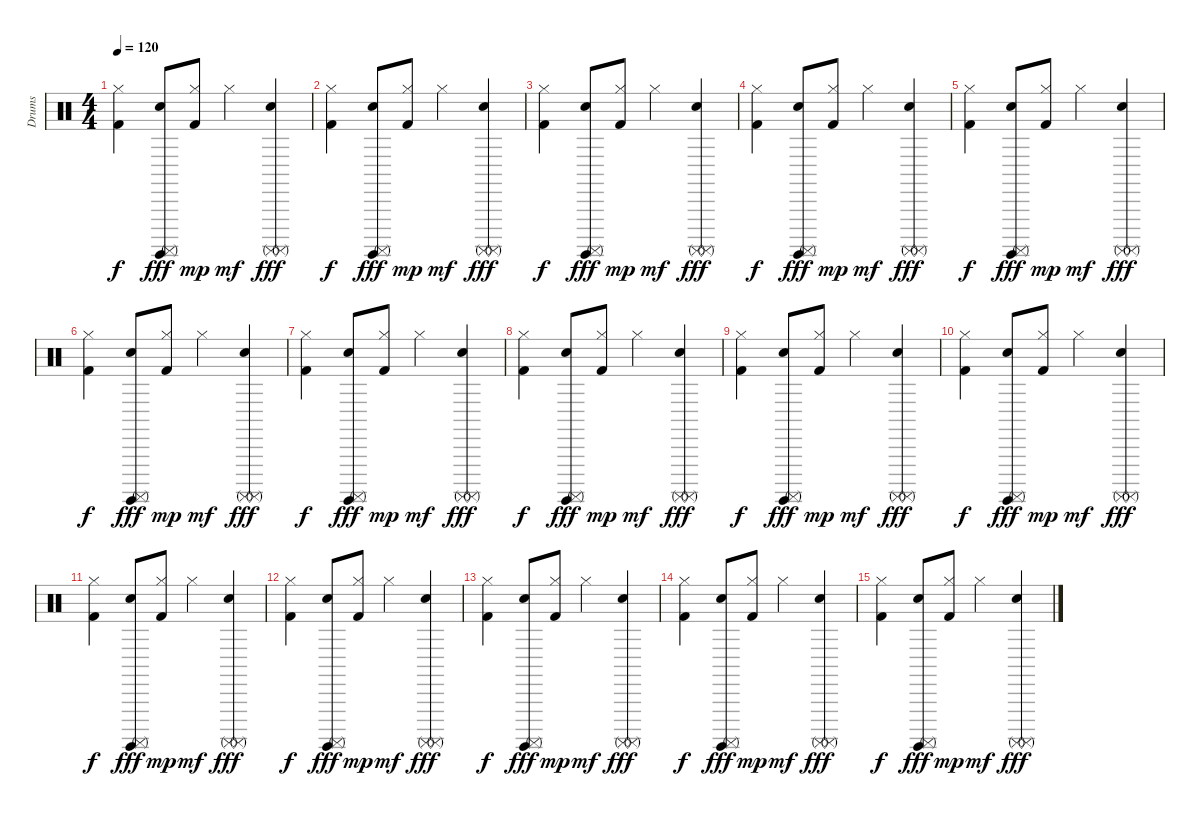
\track ("Drums" "Drums") {instrument percussion}
\staff {score}
\articulation defaults
\ts (4 4)
\tempo 120
\clef neutral
\ks c
("Kick (hit) 2" "Hi-Hat (closed)").4{dy f} ("Snare (hit) 2" "Surdo (mute)" "Surdo (hit)").8{dy fff} ("Kick (hit) 2" "Hi-Hat (closed)").8{dy mp} "Hi-Hat (closed)".4{dy mf volume 13} ("Snare (hit) 2" "Surdo (mute)" "Surdo (mute)").4{dy fff} |
("Kick (hit) 2" "Hi-Hat (closed)").4{dy f} ("Snare (hit) 2" "Surdo (mute)" "Surdo (hit)").8{dy fff} ("Kick (hit) 2" "Hi-Hat (closed)").8{dy mp} "Hi-Hat (closed)".4{dy mf volume 13} ("Snare (hit) 2" "Surdo (mute)" "Surdo (mute)").4{dy fff} |
("Kick (hit) 2" "Hi-Hat (closed)").4{dy f} ("Snare (hit) 2" "Surdo (mute)" "Surdo (hit)").8{dy fff} ("Kick (hit) 2" "Hi-Hat (closed)").8{dy mp} "Hi-Hat (closed)".4{dy mf volume 13} ("Snare (hit) 2" "Surdo (mute)" "Surdo (mute)").4{dy fff} |
("Kick (hit) 2" "Hi-Hat (closed)").4{dy f} ("Snare (hit) 2" "Surdo (mute)" "Surdo (hit)").8{dy fff} ("Kick (hit) 2" "Hi-Hat (closed)").8{dy mp} "Hi-Hat (closed)".4{dy mf volume 13} ("Snare (hit) 2" "Surdo (mute)" "Surdo (mute)").4{dy fff} |
("Kick (hit) 2" "Hi-Hat (closed)").4{dy f} ("Snare (hit) 2" "Surdo (mute)" "Surdo (hit)").8{dy fff} ("Kick (hit) 2" "Hi-Hat (closed)").8{dy mp} "Hi-Hat (closed)".4{dy mf volume 13} ("Snare (hit) 2" "Surdo (mute)" "Surdo (mute)").4{dy fff} |
("Kick (hit) 2" "Hi-Hat (closed)").4{dy f} ("Snare (hit) 2" "Surdo (mute)" "Surdo (hit)").8{dy fff} ("Kick (hit) 2" "Hi-Hat (closed)").8{dy mp} "Hi-Hat (closed)".4{dy mf volume 13} ("Snare (hit) 2" "Surdo (mute)" "Surdo (mute)").4{dy fff} |
("Kick (hit) 2" "Hi-Hat (closed)").4{dy f} ("Snare (hit) 2" "Surdo (mute)" "Surdo (hit)").8{dy fff} ("Kick (hit) 2" "Hi-Hat (closed)").8{dy mp} "Hi-Hat (closed)".4{dy mf volume 13} ("Snare (hit) 2" "Surdo (mute)" "Surdo (mute)").4{dy fff} |
("Kick (hit) 2" "Hi-Hat (closed)").4{dy f} ("Snare (hit) 2" "Surdo (mute)" "Surdo (hit)").8{dy fff} ("Kick (hit) 2" "Hi-Hat (closed)").8{dy mp} "Hi-Hat (closed)".4{dy mf volume 13} ("Snare (hit) 2" "Surdo (mute)" "Surdo (mute)").4{dy fff} |
("Kick (hit) 2" "Hi-Hat (closed)").4{dy f} ("Snare (hit) 2" "Surdo (mute)" "Surdo (hit)").8{dy fff} ("Kick (hit) 2" "Hi-Hat (closed)").8{dy mp} "Hi-Hat (closed)".4{dy mf volume 13} ("Snare (hit) 2" "Surdo (mute)" "Surdo (mute)").4{dy fff} |
("Kick (hit) 2" "Hi-Hat (closed)").4{dy f} ("Snare (hit) 2" "Surdo (mute)" "Surdo (hit)").8{dy fff} ("Kick (hit) 2" "Hi-Hat (closed)").8{dy mp} "Hi-Hat (closed)".4{dy mf volume 13} ("Snare (hit) 2" "Surdo (mute)" "Surdo (mute)").4{dy fff} |
("Kick (hit) 2" "Hi-Hat (closed)").4{dy f} ("Snare (hit) 2" "Surdo (mute)" "Surdo (hit)").8{dy fff} ("Kick (hit) 2" "Hi-Hat (closed)").8{dy mp} "Hi-Hat (closed)".4{dy mf volume 13} ("Snare (hit) 2" "Surdo (mute)" "Surdo (mute)").4{dy fff} |
("Kick (hit) 2" "Hi-Hat (closed)").4{dy f} ("Snare (hit) 2" "Surdo (mute)" "Surdo (hit)").8{dy fff} ("Kick (hit) 2" "Hi-Hat (closed)").8{dy mp} "Hi-Hat (closed)".4{dy mf volume 13} ("Snare (hit) 2" "Surdo (mute)" "Surdo (mute)").4{dy fff} |
("Kick (hit) 2" "Hi-Hat (closed)").4{dy f} ("Snare (hit) 2" "Surdo (mute)" "Surdo (hit)").8{dy fff} ("Kick (hit) 2" "Hi-Hat (closed)").8{dy mp} "Hi-Hat (closed)".4{dy mf volume 13} ("Snare (hit) 2" "Surdo (mute)" "Surdo (mute)").4{dy fff} |
("Kick (hit) 2" "Hi-Hat (closed)").4{dy f} ("Snare (hit) 2" "Surdo (mute)" "Surdo (hit)").8{dy fff} ("Kick (hit) 2" "Hi-Hat (closed)").8{dy mp} "Hi-Hat (closed)".4{dy mf volume 13} ("Snare (hit) 2" "Surdo (mute)" "Surdo (mute)").4{dy fff} |
("Kick (hit) 2" "Hi-Hat (closed)").4{dy f} ("Snare (hit) 2" "Surdo (mute)" "Surdo (hit)").8{dy fff} ("Kick (hit) 2" "Hi-Hat (closed)").8{dy mp} "Hi-Hat (closed)".4{dy mf volume 13} ("Snare (hit) 2" "Surdo (mute)" "Surdo (mute)").4{dy fff}
